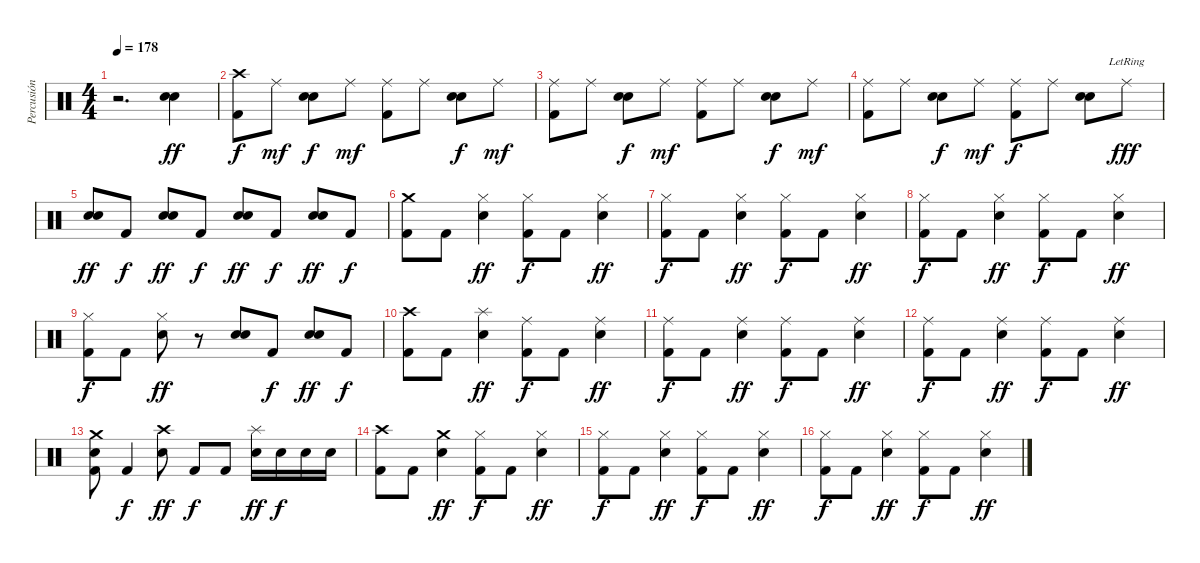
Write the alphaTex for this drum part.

\track ("Percusión" "Percusión") {instrument percussion}
\staff {score}
\articulation defaults
\ts (4 4)
\tempo 178
\clef neutral
\ks c
r.2{d dy ff} ("Snare (hit) 2" "Snare (hit) 2").4 |
("Kick (hit) 2" "Crash high (hit)").8{dy f} "Ride (middle)".8{dy mf} ("Snare (hit) 2" "Snare (hit) 2").8{dy f} "Ride (middle)".8{dy mf} ("Kick (hit) 2" "Ride (middle)").8 "Ride (middle)".8 ("Snare (hit) 2" "Snare (hit) 2").8{dy f} "Ride (middle)".8{dy mf} |
("Kick (hit) 2" "Ride (middle)").8 "Ride (middle)".8 ("Snare (hit) 2" "Snare (hit) 2").8{dy f} "Ride (middle)".8{dy mf} ("Kick (hit) 2" "Ride (middle)").8 "Ride (middle)".8 ("Snare (hit) 2" "Snare (hit) 2").8{dy f} "Ride (middle)".8{dy mf} |
("Kick (hit) 2" "Ride (middle)").8 "Ride (middle)".8 ("Snare (hit) 2" "Snare (hit) 2").8{dy f} "Ride (middle)".8{dy mf} ("Kick (hit) 2" "Ride (middle)").8{dy f} "Ride (middle)".8 ("Snare (hit) 2" "Snare (hit) 2").8 "Ride (middle)"{lr}.8{dy fff} |
("Snare (hit) 2" "Snare (hit) 2").8{dy ff} "Kick (hit) 2".8{dy f} ("Snare (hit) 2" "Snare (hit) 2").8{dy ff} "Kick (hit) 2".8{dy f} ("Snare (hit) 2" "Snare (hit) 2").8{dy ff} "Kick (hit) 2".8{dy f} ("Snare (hit) 2" "Snare (hit) 2").8{dy ff} "Kick (hit) 2".8{dy f} |
("Crash medium (hit)" "Kick (hit) 2").8 "Kick (hit) 2".8 ("Hi-Hat (closed)" "Snare (hit) 2").4{dy ff} ("Hi-Hat (closed)" "Kick (hit) 2").8{dy f} "Kick (hit) 2".8 ("Hi-Hat (closed)" "Snare (hit) 2").4{dy ff} |
("Hi-Hat (closed)" "Kick (hit) 2").8{dy f} "Kick (hit) 2".8 ("Hi-Hat (closed)" "Snare (hit) 2").4{dy ff} ("Hi-Hat (closed)" "Kick (hit) 2").8{dy f} "Kick (hit) 2".8 ("Hi-Hat (closed)" "Snare (hit) 2").4{dy ff} |
("Hi-Hat (closed)" "Kick (hit) 2").8{dy f} "Kick (hit) 2".8 ("Hi-Hat (closed)" "Snare (hit) 2").4{dy ff} ("Hi-Hat (closed)" "Kick (hit) 2").8{dy f} "Kick (hit) 2".8 ("Hi-Hat (closed)" "Snare (hit) 2").4{dy ff} |
("Hi-Hat (closed)" "Kick (hit) 2").8{dy f} "Kick (hit) 2".8 ("Hi-Hat (closed)" "Snare (hit) 2").8{dy ff} r.8 ("Snare (hit) 2" "Snare (hit) 2").8 "Kick (hit) 2".8{dy f} ("Snare (hit) 2" "Snare (hit) 2").8{dy ff} "Kick (hit) 2".8{dy f} |
("Crash high (hit)" "Kick (hit) 2").8 "Kick (hit) 2".8 ("Splash (hit)" "Snare (hit) 2").4{dy ff} ("Ride (middle)" "Kick (hit) 2").8{dy f} "Kick (hit) 2".8 ("Ride (middle)" "Snare (hit) 2").4{dy ff} |
("Ride (middle)" "Kick (hit) 2").8{dy f} "Kick (hit) 2".8 ("Ride (middle)" "Snare (hit) 2").4{dy ff} ("Ride (middle)" "Kick (hit) 2").8{dy f} "Kick (hit) 2".8 ("Ride (middle)" "Snare (hit) 2").4{dy ff} |
("Ride (middle)" "Kick (hit) 2").8{dy f} "Kick (hit) 2".8 ("Ride (middle)" "Snare (hit) 2").4{dy ff} ("Ride (middle)" "Kick (hit) 2").8{dy f} "Kick (hit) 2".8 ("Ride (middle)" "Snare (hit) 2").4{dy ff} |
("Kick (hit) 2" "Snare (hit) 2" "Crash medium (hit)").8 "Kick (hit) 2".4{dy f} ("Snare (hit) 2" "Crash high (hit)").8{dy ff} "Kick (hit) 2".8{dy f} "Kick (hit) 2".8 ("Splash (hit)" "Snare (hit) 2").16{dy ff} "Snare (hit) 2".16{dy f} "Snare (hit) 2".16 "Snare (hit) 2".16 |
("Crash high (hit)" "Kick (hit) 2").8 "Kick (hit) 2".8 ("Crash medium (hit)" "Snare (hit) 2").4{dy ff} ("Hi-Hat (closed)" "Kick (hit) 2").8{dy f} "Kick (hit) 2".8 ("Hi-Hat (closed)" "Snare (hit) 2").4{dy ff} |
("Hi-Hat (closed)" "Kick (hit) 2").8{dy f} "Kick (hit) 2".8 ("Hi-Hat (closed)" "Snare (hit) 2").4{dy ff} ("Hi-Hat (closed)" "Kick (hit) 2").8{dy f} "Kick (hit) 2".8 ("Hi-Hat (closed)" "Snare (hit) 2").4{dy ff} |
("Hi-Hat (closed)" "Kick (hit) 2").8{dy f} "Kick (hit) 2".8 ("Hi-Hat (closed)" "Snare (hit) 2").4{dy ff} ("Hi-Hat (closed)" "Kick (hit) 2").8{dy f} "Kick (hit) 2".8 ("Hi-Hat (closed)" "Snare (hit) 2").4{dy ff}
